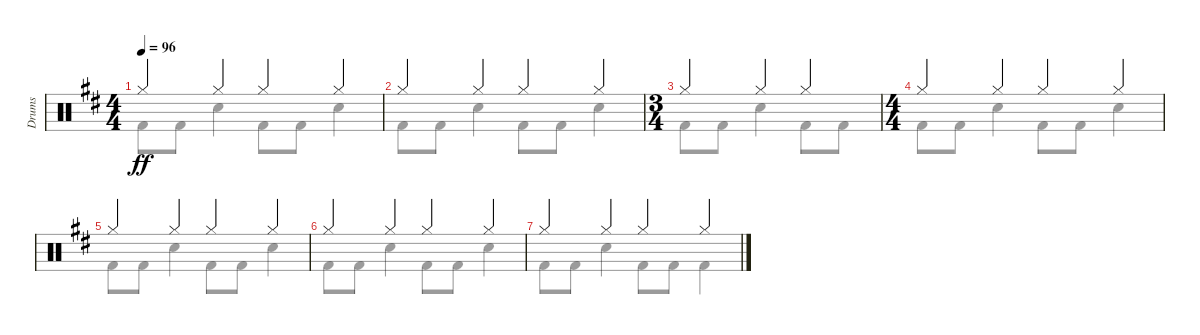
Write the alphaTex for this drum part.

\track ("Drums" "Drums") {instrument percussion}
\staff {score}
\articulation defaults
\voice
\ts (4 4)
\tempo 96
\clef neutral
\ks d "Hi-Hat (closed)".4{dy ff} "Hi-Hat (closed)".4 "Hi-Hat (closed)".4 "Hi-Hat (closed)".4
|
"Hi-Hat (closed)".4 "Hi-Hat (closed)".4 "Hi-Hat (closed)".4 "Hi-Hat (closed)".4 |
\ts (3 4)
"Hi-Hat (closed)".4 "Hi-Hat (closed)".4 "Hi-Hat (closed)".4 |
\ts (4 4)
"Hi-Hat (closed)".4 "Hi-Hat (closed)".4 "Hi-Hat (closed)".4 "Hi-Hat (closed)".4 |
"Hi-Hat (closed)".4 "Hi-Hat (closed)".4 "Hi-Hat (closed)".4 "Hi-Hat (closed)".4 |
"Hi-Hat (closed)".4 "Hi-Hat (closed)".4 "Hi-Hat (closed)".4 "Hi-Hat (closed)".4 |
"Hi-Hat (closed)".4 "Hi-Hat (closed)".4 "Hi-Hat (closed)".4 "Hi-Hat (closed)".4
\voice
\clef neutral
\ottava regular
\simile none
\ks d "Kick (hit) 2".8{dy ff} "Kick (hit) 2".8 "Electric Snare (hit)".4 "Kick (hit) 2".8 "Kick (hit) 2".8 "Electric Snare (hit)".4
|
"Kick (hit) 2".8 "Kick (hit) 2".8 "Electric Snare (hit)".4 "Kick (hit) 2".8 "Kick (hit) 2".8 "Electric Snare (hit)".4 |
"Kick (hit) 2".8 "Kick (hit) 2".8 "Electric Snare (hit)".4 "Kick (hit) 2".8 "Kick (hit) 2".8 |
"Kick (hit) 2".8 "Kick (hit) 2".8 "Electric Snare (hit)".4 "Kick (hit) 2".8 "Kick (hit) 2".8 "Electric Snare (hit)".4 |
"Kick (hit) 2".8 "Kick (hit) 2".8 "Electric Snare (hit)".4 "Kick (hit) 2".8 "Kick (hit) 2".8 "Electric Snare (hit)".4 |
"Kick (hit) 2".8 "Kick (hit) 2".8 "Electric Snare (hit)".4 "Kick (hit) 2".8 "Kick (hit) 2".8 "Electric Snare (hit)".4 |
"Kick (hit) 2".8 "Kick (hit) 2".8 "Electric Snare (hit)".4 "Kick (hit) 2".8 "Kick (hit) 2".8 "Kick (hit) 2".4
